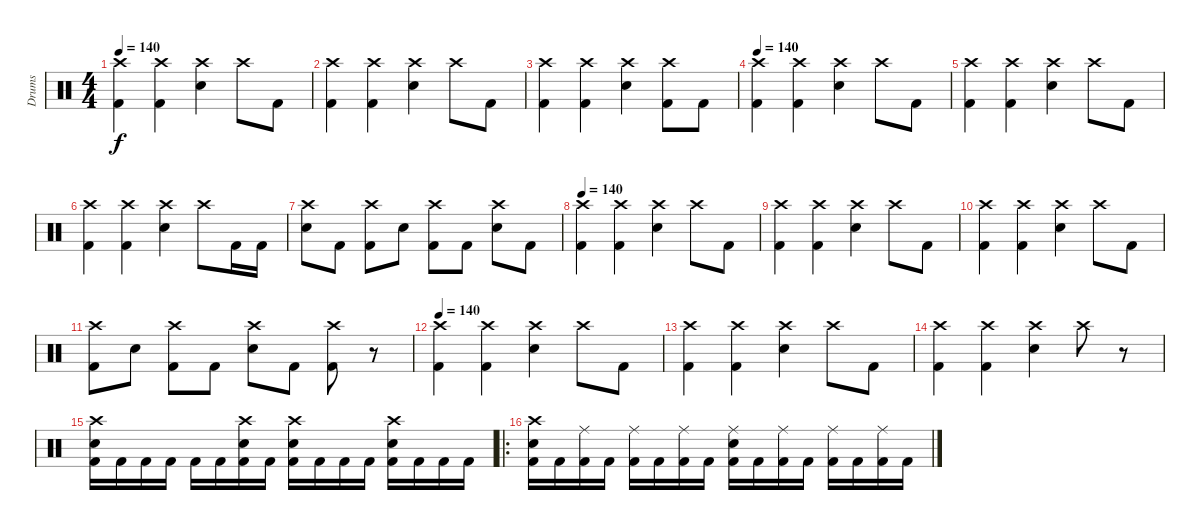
\track ("Drums" "Drums") {instrument percussion}
\staff {score}
\articulation defaults
\ts (4 4)
\tempo 140
\clef neutral
\ks c
("Crash high (hit)" "Kick (hit) 2").4{dy f} ("Crash high (hit)" "Kick (hit) 2").4 ("Crash high (hit)" "Snare (hit) 2").4 "Crash high (hit)".8 "Kick (hit) 2".8 |
("Crash high (hit)" "Kick (hit) 2").4 ("Crash high (hit)" "Kick (hit) 2").4 ("Crash high (hit)" "Snare (hit) 2").4 "Crash high (hit)".8 "Kick (hit) 2".8 |
("Crash high (hit)" "Kick (hit) 2").4 ("Crash high (hit)" "Kick (hit) 2").4 ("Crash high (hit)" "Snare (hit) 2").4 ("Crash high (hit)" "Kick (hit) 2").8 "Kick (hit) 2".8 |
\tempo 140
("Crash high (hit)" "Kick (hit) 2").4 ("Crash high (hit)" "Kick (hit) 2").4 ("Crash high (hit)" "Snare (hit) 2").4 "Crash high (hit)".8 "Kick (hit) 2".8 |
("Crash high (hit)" "Kick (hit) 2").4 ("Crash high (hit)" "Kick (hit) 2").4 ("Crash high (hit)" "Snare (hit) 2").4 "Crash high (hit)".8 "Kick (hit) 2".8 |
("Crash high (hit)" "Kick (hit) 2").4 ("Crash high (hit)" "Kick (hit) 2").4 ("Crash high (hit)" "Snare (hit) 2").4 "Crash high (hit)".8 "Kick (hit) 2".16 "Kick (hit) 2".16 |
("Crash high (hit)" "Snare (hit) 2").8 "Kick (hit) 2".8 ("Crash high (hit)" "Kick (hit) 2").8 "Snare (hit) 2".8 ("Crash high (hit)" "Kick (hit) 2").8 "Kick (hit) 2".8 ("Crash high (hit)" "Snare (hit) 2").8 "Kick (hit) 2".8 |
\tempo 140
("Crash high (hit)" "Kick (hit) 2").4 ("Crash high (hit)" "Kick (hit) 2").4 ("Crash high (hit)" "Snare (hit) 2").4 "Crash high (hit)".8 "Kick (hit) 2".8 |
("Crash high (hit)" "Kick (hit) 2").4 ("Crash high (hit)" "Kick (hit) 2").4 ("Crash high (hit)" "Snare (hit) 2").4 "Crash high (hit)".8 "Kick (hit) 2".8 |
("Crash high (hit)" "Kick (hit) 2").4 ("Crash high (hit)" "Kick (hit) 2").4 ("Crash high (hit)" "Snare (hit) 2").4 "Crash high (hit)".8 "Kick (hit) 2".8 |
("Crash high (hit)" "Kick (hit) 2").8 "Snare (hit) 2".8 ("Crash high (hit)" "Kick (hit) 2").8 "Kick (hit) 2".8 ("Crash high (hit)" "Snare (hit) 2").8 "Kick (hit) 2".8 ("Crash high (hit)" "Kick (hit) 2").8 r.8 |
\tempo 140
("Crash high (hit)" "Kick (hit) 2").4 ("Crash high (hit)" "Kick (hit) 2").4 ("Crash high (hit)" "Snare (hit) 2").4 "Crash high (hit)".8 "Kick (hit) 2".8 |
("Crash high (hit)" "Kick (hit) 2").4 ("Crash high (hit)" "Kick (hit) 2").4 ("Crash high (hit)" "Snare (hit) 2").4 "Crash high (hit)".8 "Kick (hit) 2".8 |
("Crash high (hit)" "Kick (hit) 2").4 ("Crash high (hit)" "Kick (hit) 2").4 ("Crash high (hit)" "Snare (hit) 2").4 "Crash high (hit)".8 r.8 |
("Crash high (hit)" "Snare (hit) 2" "Kick (hit) 2").16 "Kick (hit) 2".16 "Kick (hit) 2".16 "Kick (hit) 2".16 "Kick (hit) 2".16 "Kick (hit) 2".16 ("Crash high (hit)" "Snare (hit) 2" "Kick (hit) 2").16 "Kick (hit) 2".16 ("Crash high (hit)" "Snare (hit) 2" "Kick (hit) 2").16 "Kick (hit) 2".16 "Kick (hit) 2".16 "Kick (hit) 2".16 ("Crash high (hit)" "Snare (hit) 2" "Kick (hit) 2").16 "Kick (hit) 2".16 "Kick (hit) 2".16 "Kick (hit) 2".16 |
\ro
("Crash high (hit)" "Snare (hit) 2" "Kick (hit) 2").16 "Kick (hit) 2".16 ("Ride (middle)" "Kick (hit) 2").16 "Kick (hit) 2".16 ("Ride (middle)" "Kick (hit) 2").16 "Kick (hit) 2".16 ("Ride (middle)" "Kick (hit) 2").16 "Kick (hit) 2".16 ("Ride (middle)" "Snare (hit) 2" "Kick (hit) 2").16 "Kick (hit) 2".16 ("Ride (middle)" "Kick (hit) 2").16 "Kick (hit) 2".16 ("Ride (middle)" "Kick (hit) 2").16 "Kick (hit) 2".16 ("Ride (middle)" "Kick (hit) 2").16 "Kick (hit) 2".16
